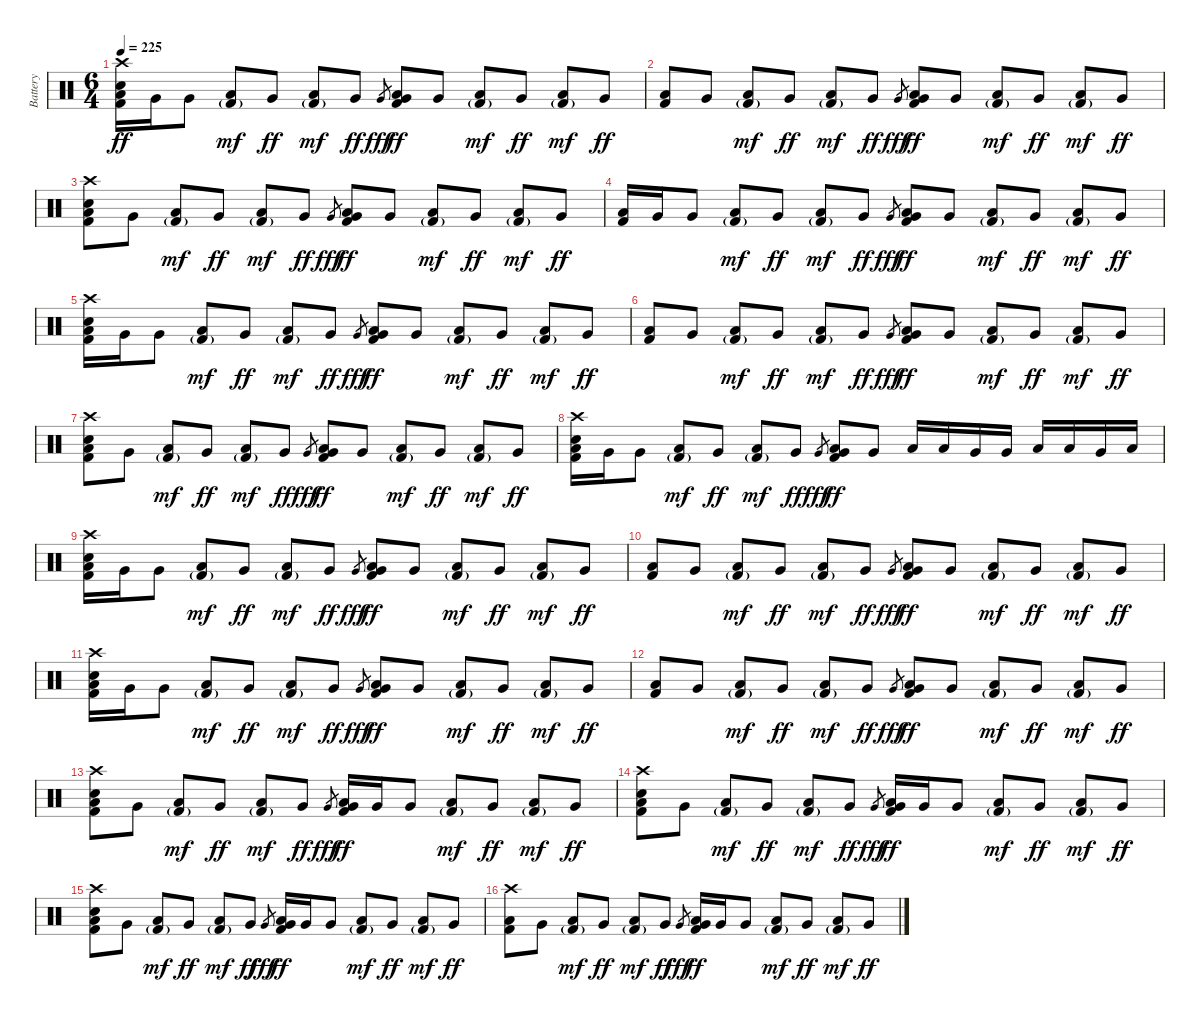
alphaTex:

\track ("Battery" "Battery") {instrument percussion}
\staff {score}
\articulation defaults
\ts (6 4)
\tempo 225
\clef neutral
\ks c
("Crash high (hit)" "Low Tom (hit)" "Electric Snare (hit)" "Kick (hit) 2").16{dy ff} "Very Low Tom (hit)".16 "Very Low Tom (hit)".8 ("Low Tom (hit)" "Kick (hit) 2"{g}).8{dy mf} "Very Low Tom (hit)".8{dy ff} ("Low Tom (hit)" "Kick (hit) 2"{g}).8{dy mf} "Very Low Tom (hit)".8{dy ff} "Very Low Tom (hit)".8{gr dy fff} ("Low Tom (hit)" "Very Low Tom (hit)" "Kick (hit) 2").8{dy ff} "Very Low Tom (hit)".8 ("Low Tom (hit)" "Kick (hit) 2"{g}).8{dy mf} "Very Low Tom (hit)".8{dy ff} ("Low Tom (hit)" "Kick (hit) 2"{g}).8{dy mf} "Very Low Tom (hit)".8{dy ff} |
("Low Tom (hit)" "Kick (hit) 2").8 "Very Low Tom (hit)".8 ("Low Tom (hit)" "Kick (hit) 2"{g}).8{dy mf} "Very Low Tom (hit)".8{dy ff} ("Low Tom (hit)" "Kick (hit) 2"{g}).8{dy mf} "Very Low Tom (hit)".8{dy ff} "Very Low Tom (hit)".8{gr dy fff} ("Low Tom (hit)" "Very Low Tom (hit)" "Kick (hit) 2").8{dy ff} "Very Low Tom (hit)".8 ("Low Tom (hit)" "Kick (hit) 2"{g}).8{dy mf} "Very Low Tom (hit)".8{dy ff} ("Low Tom (hit)" "Kick (hit) 2"{g}).8{dy mf} "Very Low Tom (hit)".8{dy ff} |
("Crash high (hit)" "Low Floor Tom (hit)" "Electric Snare (hit)" "Kick (hit) 2").8 "Very Low Tom (hit)".8 ("Low Tom (hit)" "Kick (hit) 2"{g}).8{dy mf} "Very Low Tom (hit)".8{dy ff} ("Low Tom (hit)" "Kick (hit) 2"{g}).8{dy mf} "Very Low Tom (hit)".8{dy ff} "Very Low Tom (hit)".8{gr dy fff} ("Low Tom (hit)" "Very Low Tom (hit)" "Kick (hit) 2").8{dy ff} "Very Low Tom (hit)".8 ("Low Tom (hit)" "Kick (hit) 2"{g}).8{dy mf} "Very Low Tom (hit)".8{dy ff} ("Low Tom (hit)" "Kick (hit) 2"{g}).8{dy mf} "Very Low Tom (hit)".8{dy ff} |
("Low Tom (hit)" "Kick (hit) 2").16 "Very Low Tom (hit)".16 "Very Low Tom (hit)".8 ("Low Tom (hit)" "Kick (hit) 2"{g}).8{dy mf} "Very Low Tom (hit)".8{dy ff} ("Low Tom (hit)" "Kick (hit) 2"{g}).8{dy mf} "Very Low Tom (hit)".8{dy ff} "Very Low Tom (hit)".8{gr dy fff} ("Low Tom (hit)" "Very Low Tom (hit)" "Kick (hit) 2").8{dy ff} "Very Low Tom (hit)".8 ("Low Tom (hit)" "Kick (hit) 2"{g}).8{dy mf} "Very Low Tom (hit)".8{dy ff} ("Low Tom (hit)" "Kick (hit) 2"{g}).8{dy mf} "Very Low Tom (hit)".8{dy ff} |
("Crash high (hit)" "Low Tom (hit)" "Electric Snare (hit)" "Kick (hit) 2").16 "Very Low Tom (hit)".16 "Very Low Tom (hit)".8 ("Low Tom (hit)" "Kick (hit) 2"{g}).8{dy mf} "Very Low Tom (hit)".8{dy ff} ("Low Tom (hit)" "Kick (hit) 2"{g}).8{dy mf} "Very Low Tom (hit)".8{dy ff} "Very Low Tom (hit)".8{gr dy fff} ("Low Tom (hit)" "Very Low Tom (hit)" "Kick (hit) 2").8{dy ff} "Very Low Tom (hit)".8 ("Low Tom (hit)" "Kick (hit) 2"{g}).8{dy mf} "Very Low Tom (hit)".8{dy ff} ("Low Tom (hit)" "Kick (hit) 2"{g}).8{dy mf} "Very Low Tom (hit)".8{dy ff} |
("Low Tom (hit)" "Kick (hit) 2").8 "Very Low Tom (hit)".8 ("Low Tom (hit)" "Kick (hit) 2"{g}).8{dy mf} "Very Low Tom (hit)".8{dy ff} ("Low Tom (hit)" "Kick (hit) 2"{g}).8{dy mf} "Very Low Tom (hit)".8{dy ff} "Very Low Tom (hit)".8{gr dy fff} ("Low Tom (hit)" "Very Low Tom (hit)" "Kick (hit) 2").8{dy ff} "Very Low Tom (hit)".8 ("Low Tom (hit)" "Kick (hit) 2"{g}).8{dy mf} "Very Low Tom (hit)".8{dy ff} ("Low Tom (hit)" "Kick (hit) 2"{g}).8{dy mf} "Very Low Tom (hit)".8{dy ff} |
("Crash high (hit)" "Low Floor Tom (hit)" "Electric Snare (hit)" "Kick (hit) 2").8 "Very Low Tom (hit)".8 ("Low Tom (hit)" "Kick (hit) 2"{g}).8{dy mf} "Very Low Tom (hit)".8{dy ff} ("Low Tom (hit)" "Kick (hit) 2"{g}).8{dy mf} "Very Low Tom (hit)".8{dy ff} "Very Low Tom (hit)".8{gr dy fff} ("Low Tom (hit)" "Very Low Tom (hit)" "Kick (hit) 2").8{dy ff} "Very Low Tom (hit)".8 ("Low Tom (hit)" "Kick (hit) 2"{g}).8{dy mf} "Very Low Tom (hit)".8{dy ff} ("Low Tom (hit)" "Kick (hit) 2"{g}).8{dy mf} "Very Low Tom (hit)".8{dy ff} |
("Crash high (hit)" "Low Tom (hit)" "Electric Snare (hit)" "Kick (hit) 2").16 "Very Low Tom (hit)".16 "Very Low Tom (hit)".8 ("Low Tom (hit)" "Kick (hit) 2"{g}).8{dy mf} "Very Low Tom (hit)".8{dy ff} ("Low Tom (hit)" "Kick (hit) 2"{g}).8{dy mf} "Very Low Tom (hit)".8{dy ff} "Very Low Tom (hit)".8{gr dy fff} ("Low Tom (hit)" "Very Low Tom (hit)" "Kick (hit) 2").8{dy ff} "Very Low Tom (hit)".8 "Low Tom (hit)".16 "Low Tom (hit)".16 "Very Low Tom (hit)".16 "Very Low Tom (hit)".16 "Low Tom (hit)".16 "Low Tom (hit)".16 "Very Low Tom (hit)".16 "Low Floor Tom (hit)".16 |
("Crash high (hit)" "Low Tom (hit)" "Electric Snare (hit)" "Kick (hit) 2").16 "Very Low Tom (hit)".16 "Very Low Tom (hit)".8 ("Low Tom (hit)" "Kick (hit) 2"{g}).8{dy mf} "Very Low Tom (hit)".8{dy ff} ("Low Tom (hit)" "Kick (hit) 2"{g}).8{dy mf} "Very Low Tom (hit)".8{dy ff} "Very Low Tom (hit)".8{gr dy fff} ("Low Tom (hit)" "Very Low Tom (hit)" "Kick (hit) 2").8{dy ff} "Very Low Tom (hit)".8 ("Low Tom (hit)" "Kick (hit) 2"{g}).8{dy mf} "Very Low Tom (hit)".8{dy ff} ("Low Tom (hit)" "Kick (hit) 2"{g}).8{dy mf} "Very Low Tom (hit)".8{dy ff} |
("Low Tom (hit)" "Kick (hit) 2").8 "Very Low Tom (hit)".8 ("Low Tom (hit)" "Kick (hit) 2"{g}).8{dy mf} "Very Low Tom (hit)".8{dy ff} ("Low Tom (hit)" "Kick (hit) 2"{g}).8{dy mf} "Very Low Tom (hit)".8{dy ff} "Very Low Tom (hit)".8{gr dy fff} ("Low Tom (hit)" "Very Low Tom (hit)" "Kick (hit) 2").8{dy ff} "Very Low Tom (hit)".8 ("Low Tom (hit)" "Kick (hit) 2"{g}).8{dy mf} "Very Low Tom (hit)".8{dy ff} ("Low Tom (hit)" "Kick (hit) 2"{g}).8{dy mf} "Very Low Tom (hit)".8{dy ff} |
("Crash high (hit)" "Low Tom (hit)" "Electric Snare (hit)" "Kick (hit) 2").16 "Very Low Tom (hit)".16 "Very Low Tom (hit)".8 ("Low Tom (hit)" "Kick (hit) 2"{g}).8{dy mf} "Very Low Tom (hit)".8{dy ff} ("Low Tom (hit)" "Kick (hit) 2"{g}).8{dy mf} "Very Low Tom (hit)".8{dy ff} "Very Low Tom (hit)".8{gr dy fff} ("Low Tom (hit)" "Very Low Tom (hit)" "Kick (hit) 2").8{dy ff} "Very Low Tom (hit)".8 ("Low Tom (hit)" "Kick (hit) 2"{g}).8{dy mf} "Very Low Tom (hit)".8{dy ff} ("Low Tom (hit)" "Kick (hit) 2"{g}).8{dy mf} "Very Low Tom (hit)".8{dy ff} |
("Low Tom (hit)" "Kick (hit) 2").8 "Very Low Tom (hit)".8 ("Low Tom (hit)" "Kick (hit) 2"{g}).8{dy mf} "Very Low Tom (hit)".8{dy ff} ("Low Tom (hit)" "Kick (hit) 2"{g}).8{dy mf} "Very Low Tom (hit)".8{dy ff} "Very Low Tom (hit)".8{gr dy fff} ("Low Tom (hit)" "Very Low Tom (hit)" "Kick (hit) 2").8{dy ff} "Very Low Tom (hit)".8 ("Low Tom (hit)" "Kick (hit) 2"{g}).8{dy mf} "Very Low Tom (hit)".8{dy ff} ("Low Tom (hit)" "Kick (hit) 2"{g}).8{dy mf} "Very Low Tom (hit)".8{dy ff} |
("Crash high (hit)" "Low Tom (hit)" "Electric Snare (hit)" "Kick (hit) 2").8 "Very Low Tom (hit)".8 ("Low Tom (hit)" "Kick (hit) 2"{g}).8{dy mf} "Very Low Tom (hit)".8{dy ff} ("Low Tom (hit)" "Kick (hit) 2"{g}).8{dy mf} "Very Low Tom (hit)".8{dy ff} "Very Low Tom (hit)".8{gr dy fff} ("Low Tom (hit)" "Very Low Tom (hit)" "Kick (hit) 2").16{dy ff} "Very Low Tom (hit)".16 "Very Low Tom (hit)".8 ("Low Tom (hit)" "Kick (hit) 2"{g}).8{dy mf} "Very Low Tom (hit)".8{dy ff} ("Low Tom (hit)" "Kick (hit) 2"{g}).8{dy mf} "Very Low Tom (hit)".8{dy ff} |
("Crash high (hit)" "Low Tom (hit)" "Electric Snare (hit)" "Kick (hit) 2").8 "Very Low Tom (hit)".8 ("Low Tom (hit)" "Kick (hit) 2"{g}).8{dy mf} "Very Low Tom (hit)".8{dy ff} ("Low Tom (hit)" "Kick (hit) 2"{g}).8{dy mf} "Very Low Tom (hit)".8{dy ff} "Very Low Tom (hit)".8{gr dy fff} ("Low Tom (hit)" "Very Low Tom (hit)" "Kick (hit) 2").16{dy ff} "Very Low Tom (hit)".16 "Very Low Tom (hit)".8 ("Low Tom (hit)" "Kick (hit) 2"{g}).8{dy mf} "Very Low Tom (hit)".8{dy ff} ("Low Tom (hit)" "Kick (hit) 2"{g}).8{dy mf} "Very Low Tom (hit)".8{dy ff} |
("Crash high (hit)" "Low Tom (hit)" "Electric Snare (hit)" "Kick (hit) 2").8 "Very Low Tom (hit)".8 ("Low Tom (hit)" "Kick (hit) 2"{g}).8{dy mf} "Very Low Tom (hit)".8{dy ff} ("Low Tom (hit)" "Kick (hit) 2"{g}).8{dy mf} "Very Low Tom (hit)".8{dy ff} "Very Low Tom (hit)".8{gr dy fff} ("Low Tom (hit)" "Very Low Tom (hit)" "Kick (hit) 2").16{dy ff} "Very Low Tom (hit)".16 "Very Low Tom (hit)".8 ("Low Tom (hit)" "Kick (hit) 2"{g}).8{dy mf} "Very Low Tom (hit)".8{dy ff} ("Low Tom (hit)" "Kick (hit) 2"{g}).8{dy mf} "Very Low Tom (hit)".8{dy ff} |
("Crash high (hit)" "Low Tom (hit)" "Kick (hit) 2").8 "Very Low Tom (hit)".8 ("Low Tom (hit)" "Kick (hit) 2"{g}).8{dy mf} "Very Low Tom (hit)".8{dy ff} ("Low Tom (hit)" "Kick (hit) 2"{g}).8{dy mf} "Very Low Tom (hit)".8{dy ff} "Very Low Tom (hit)".8{gr dy fff} ("Low Tom (hit)" "Very Low Tom (hit)" "Kick (hit) 2").16{dy ff} "Very Low Tom (hit)".16 "Very Low Tom (hit)".8 ("Low Tom (hit)" "Kick (hit) 2"{g}).8{dy mf} "Very Low Tom (hit)".8{dy ff} ("Low Tom (hit)" "Kick (hit) 2"{g}).8{dy mf} "Very Low Tom (hit)".8{dy ff}
